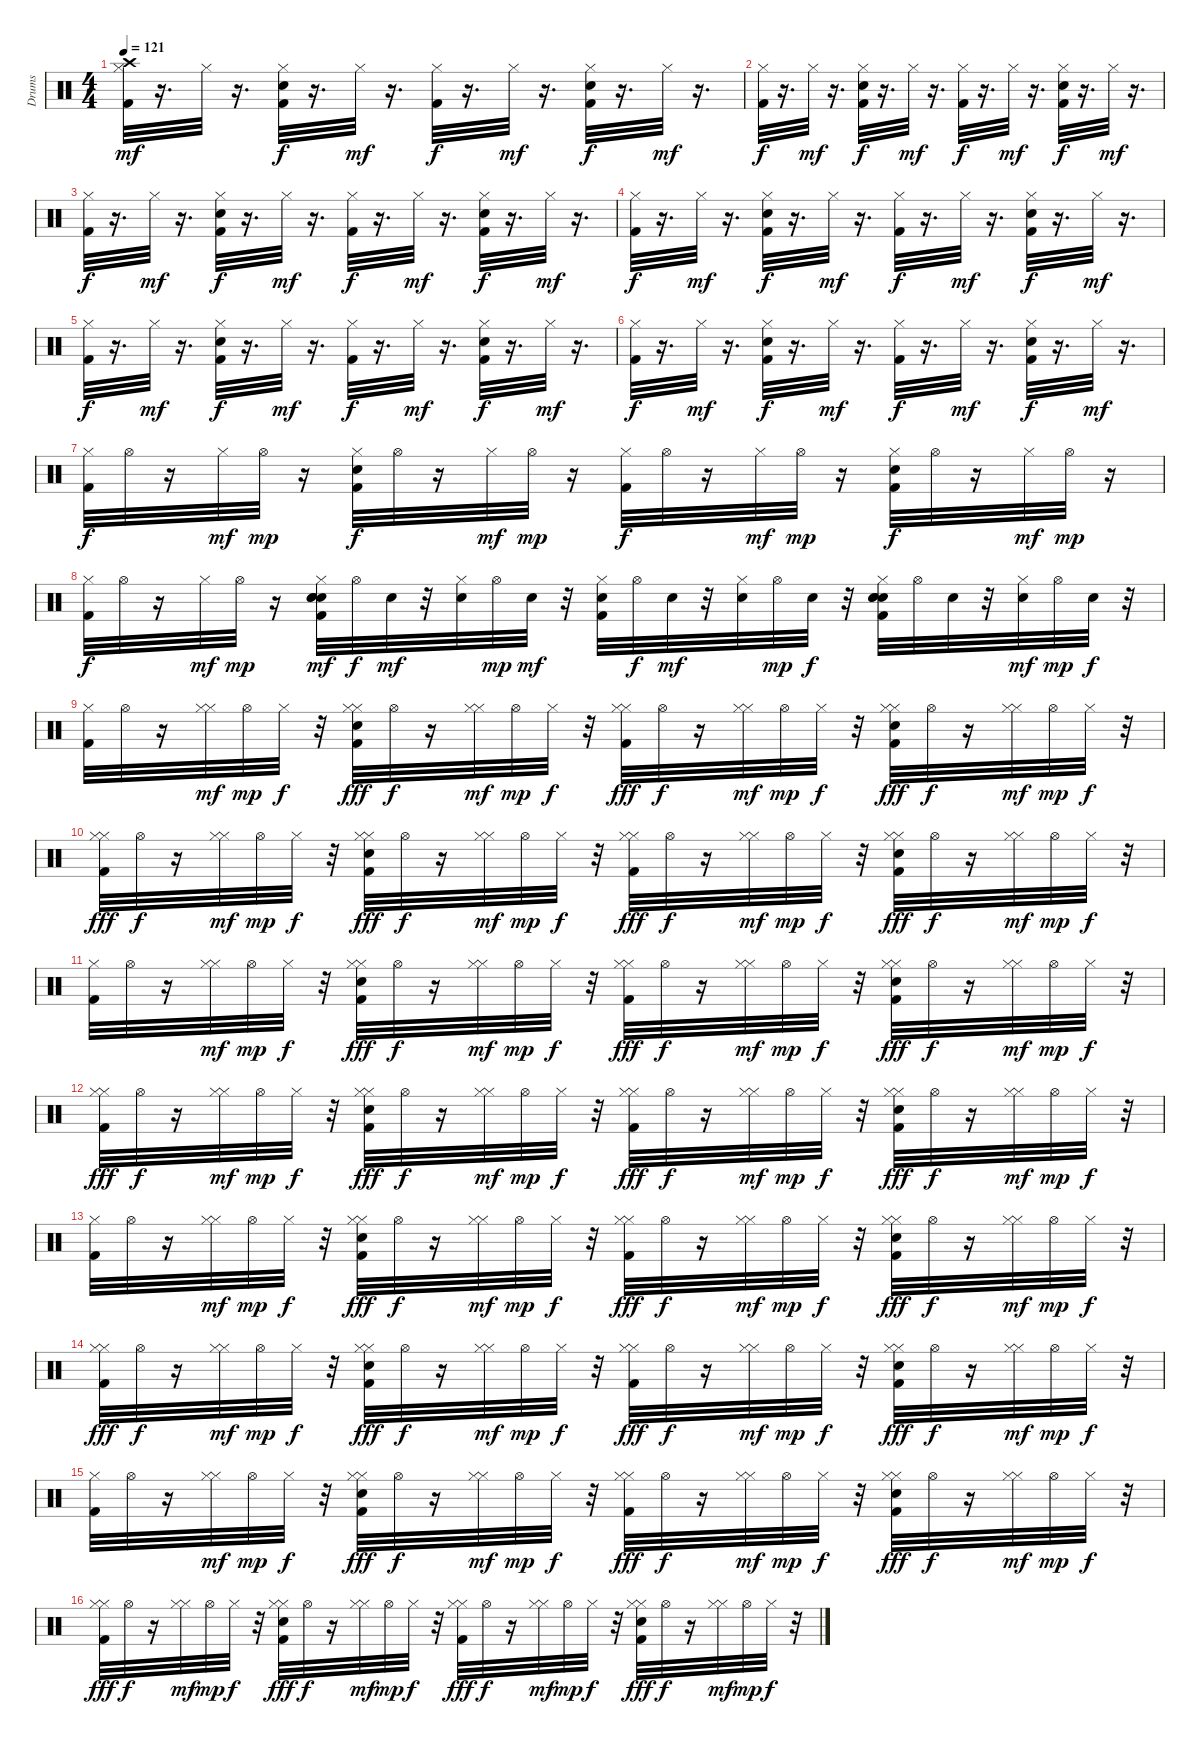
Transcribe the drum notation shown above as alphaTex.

\track ("Drums" "Drums") {instrument percussion}
\staff {score}
\articulation defaults
\ts (4 4)
\tempo 121
\clef neutral
\ks c
("Kick (hit) 2" "Hi-Hat (closed)" "Crash high (hit)").32{dy mf} r.16{d} "Hi-Hat (closed)".32 r.16{d} ("Kick (hit) 2" "Hi-Hat (closed)" "Snare (hit) 2").32{dy f} r.16{d} "Hi-Hat (closed)".32{dy mf} r.16{d} ("Hi-Hat (closed)" "Kick (hit) 2").32{dy f} r.16{d} "Hi-Hat (closed)".32{dy mf} r.16{d} ("Kick (hit) 2" "Hi-Hat (closed)" "Snare (hit) 2").32{dy f} r.16{d} "Hi-Hat (closed)".32{dy mf} r.16{d} |
("Hi-Hat (closed)" "Kick (hit) 2").32{dy f} r.16{d} "Hi-Hat (closed)".32{dy mf} r.16{d} ("Kick (hit) 2" "Hi-Hat (closed)" "Snare (hit) 2").32{dy f} r.16{d} "Hi-Hat (closed)".32{dy mf} r.16{d} ("Hi-Hat (closed)" "Kick (hit) 2").32{dy f} r.16{d} "Hi-Hat (closed)".32{dy mf} r.16{d} ("Kick (hit) 2" "Hi-Hat (closed)" "Snare (hit) 2").32{dy f} r.16{d} "Hi-Hat (closed)".32{dy mf} r.16{d} |
("Kick (hit) 2" "Hi-Hat (closed)").32{dy f} r.16{d} "Hi-Hat (closed)".32{dy mf} r.16{d} ("Kick (hit) 2" "Hi-Hat (closed)" "Snare (hit) 2").32{dy f} r.16{d} "Hi-Hat (closed)".32{dy mf} r.16{d} ("Hi-Hat (closed)" "Kick (hit) 2").32{dy f} r.16{d} "Hi-Hat (closed)".32{dy mf} r.16{d} ("Kick (hit) 2" "Hi-Hat (closed)" "Snare (hit) 2").32{dy f} r.16{d} "Hi-Hat (closed)".32{dy mf} r.16{d} |
("Hi-Hat (closed)" "Kick (hit) 2").32{dy f} r.16{d} "Hi-Hat (closed)".32{dy mf} r.16{d} ("Kick (hit) 2" "Hi-Hat (closed)" "Snare (hit) 2").32{dy f} r.16{d} "Hi-Hat (closed)".32{dy mf} r.16{d} ("Hi-Hat (closed)" "Kick (hit) 2").32{dy f} r.16{d} "Hi-Hat (closed)".32{dy mf} r.16{d} ("Kick (hit) 2" "Hi-Hat (closed)" "Snare (hit) 2").32{dy f} r.16{d} "Hi-Hat (closed)".32{dy mf} r.16{d} |
("Kick (hit) 2" "Hi-Hat (closed)").32{dy f} r.16{d} "Hi-Hat (closed)".32{dy mf} r.16{d} ("Kick (hit) 2" "Hi-Hat (closed)" "Snare (hit) 2").32{dy f} r.16{d} "Hi-Hat (closed)".32{dy mf} r.16{d} ("Hi-Hat (closed)" "Kick (hit) 2").32{dy f} r.16{d} "Hi-Hat (closed)".32{dy mf} r.16{d} ("Kick (hit) 2" "Hi-Hat (closed)" "Snare (hit) 2").32{dy f} r.16{d} "Hi-Hat (closed)".32{dy mf} r.16{d} |
("Hi-Hat (closed)" "Kick (hit) 2").32{dy f} r.16{d} "Hi-Hat (closed)".32{dy mf} r.16{d} ("Kick (hit) 2" "Hi-Hat (closed)" "Snare (hit) 2").32{dy f} r.16{d} "Hi-Hat (closed)".32{dy mf} r.16{d} ("Hi-Hat (closed)" "Kick (hit) 2").32{dy f} r.16{d} "Hi-Hat (closed)".32{dy mf} r.16{d} ("Kick (hit) 2" "Hi-Hat (closed)" "Snare (hit) 2").32{dy f} r.16{d} "Hi-Hat (closed)".32{dy mf} r.16{d} |
("Kick (hit) 2" "Hi-Hat (closed)").32{dy f} "Hi-Hat (open)".32 r.16 "Hi-Hat (closed)".32{dy mf} "Hi-Hat (open)".32{dy mp} r.16 ("Kick (hit) 2" "Hi-Hat (closed)" "Snare (hit) 2").32{dy f} "Hi-Hat (open)".32 r.16 "Hi-Hat (closed)".32{dy mf} "Hi-Hat (open)".32{dy mp} r.16 ("Hi-Hat (closed)" "Kick (hit) 2").32{dy f} "Hi-Hat (open)".32 r.16 "Hi-Hat (closed)".32{dy mf} "Hi-Hat (open)".32{dy mp} r.16 ("Kick (hit) 2" "Hi-Hat (closed)" "Snare (hit) 2").32{dy f} "Hi-Hat (open)".32 r.16 "Hi-Hat (closed)".32{dy mf} "Hi-Hat (open)".32{dy mp} r.16 |
("Hi-Hat (closed)" "Kick (hit) 2").32{dy f} "Hi-Hat (open)".32 r.16 "Hi-Hat (closed)".32{dy mf} "Hi-Hat (open)".32{dy mp} r.16 ("Kick (hit) 2" "Hi-Hat (closed)" "Snare (hit) 2" "Snare (hit) 2" "Snare (hit) 2").32{dy mf} "Hi-Hat (open)".32{dy f} "Snare (hit) 2".32{dy mf} r.32 ("Hi-Hat (closed)" "Snare (hit) 2").32 "Hi-Hat (open)".32{dy mp} "Snare (hit) 2".32{dy mf} r.32 ("Hi-Hat (closed)" "Kick (hit) 2" "Snare (hit) 2").32 "Hi-Hat (open)".32{dy f} "Snare (hit) 2".32{dy mf} r.32 ("Hi-Hat (closed)" "Snare (hit) 2").32 "Hi-Hat (open)".32{dy mp} "Snare (hit) 2".32{dy f} r.32 ("Kick (hit) 2" "Hi-Hat (closed)" "Snare (hit) 2" "Snare (hit) 2" "Snare (hit) 2").32 "Hi-Hat (open)".32 "Snare (hit) 2".32 r.32 ("Hi-Hat (closed)" "Snare (hit) 2").32{dy mf} "Hi-Hat (open)".32{dy mp} "Snare (hit) 2".32{dy f} r.32 |
("Kick (hit) 2" "Hi-Hat (closed)").32 "Hi-Hat (open)".32 r.16 ("Hi-Hat (closed)" "Hi-Hat (closed)").32{dy mf} "Hi-Hat (open)".32{dy mp} "Hi-Hat (closed)".32{dy f} r.32 ("Kick (hit) 2" "Hi-Hat (closed)" "Snare (hit) 2" "Hi-Hat (closed)").32{dy fff} "Hi-Hat (open)".32{dy f} r.16 ("Hi-Hat (closed)" "Hi-Hat (closed)").32{dy mf} "Hi-Hat (open)".32{dy mp} "Hi-Hat (closed)".32{dy f} r.32 ("Hi-Hat (closed)" "Kick (hit) 2" "Hi-Hat (closed)").32{dy fff} "Hi-Hat (open)".32{dy f} r.16 ("Hi-Hat (closed)" "Hi-Hat (closed)").32{dy mf} "Hi-Hat (open)".32{dy mp} "Hi-Hat (closed)".32{dy f} r.32 ("Kick (hit) 2" "Hi-Hat (closed)" "Snare (hit) 2" "Hi-Hat (closed)").32{dy fff} "Hi-Hat (open)".32{dy f} r.16 ("Hi-Hat (closed)" "Hi-Hat (closed)").32{dy mf} "Hi-Hat (open)".32{dy mp} "Hi-Hat (closed)".32{dy f} r.32 |
("Hi-Hat (closed)" "Kick (hit) 2" "Hi-Hat (closed)").32{dy fff} "Hi-Hat (open)".32{dy f} r.16 ("Hi-Hat (closed)" "Hi-Hat (closed)").32{dy mf} "Hi-Hat (open)".32{dy mp} "Hi-Hat (closed)".32{dy f} r.32 ("Kick (hit) 2" "Hi-Hat (closed)" "Snare (hit) 2" "Hi-Hat (closed)").32{dy fff} "Hi-Hat (open)".32{dy f} r.16 ("Hi-Hat (closed)" "Hi-Hat (closed)").32{dy mf} "Hi-Hat (open)".32{dy mp} "Hi-Hat (closed)".32{dy f} r.32 ("Hi-Hat (closed)" "Kick (hit) 2" "Hi-Hat (closed)").32{dy fff} "Hi-Hat (open)".32{dy f} r.16 ("Hi-Hat (closed)" "Hi-Hat (closed)").32{dy mf} "Hi-Hat (open)".32{dy mp} "Hi-Hat (closed)".32{dy f} r.32 ("Kick (hit) 2" "Hi-Hat (closed)" "Snare (hit) 2" "Hi-Hat (closed)").32{dy fff} "Hi-Hat (open)".32{dy f} r.16 ("Hi-Hat (closed)" "Hi-Hat (closed)").32{dy mf} "Hi-Hat (open)".32{dy mp} "Hi-Hat (closed)".32{dy f} r.32 |
("Kick (hit) 2" "Hi-Hat (closed)").32 "Hi-Hat (open)".32 r.16 ("Hi-Hat (closed)" "Hi-Hat (closed)").32{dy mf} "Hi-Hat (open)".32{dy mp} "Hi-Hat (closed)".32{dy f} r.32 ("Kick (hit) 2" "Hi-Hat (closed)" "Snare (hit) 2" "Hi-Hat (closed)").32{dy fff} "Hi-Hat (open)".32{dy f} r.16 ("Hi-Hat (closed)" "Hi-Hat (closed)").32{dy mf} "Hi-Hat (open)".32{dy mp} "Hi-Hat (closed)".32{dy f} r.32 ("Hi-Hat (closed)" "Kick (hit) 2" "Hi-Hat (closed)").32{dy fff} "Hi-Hat (open)".32{dy f} r.16 ("Hi-Hat (closed)" "Hi-Hat (closed)").32{dy mf} "Hi-Hat (open)".32{dy mp} "Hi-Hat (closed)".32{dy f} r.32 ("Kick (hit) 2" "Hi-Hat (closed)" "Snare (hit) 2" "Hi-Hat (closed)").32{dy fff} "Hi-Hat (open)".32{dy f} r.16 ("Hi-Hat (closed)" "Hi-Hat (closed)").32{dy mf} "Hi-Hat (open)".32{dy mp} "Hi-Hat (closed)".32{dy f} r.32 |
("Hi-Hat (closed)" "Kick (hit) 2" "Hi-Hat (closed)").32{dy fff} "Hi-Hat (open)".32{dy f} r.16 ("Hi-Hat (closed)" "Hi-Hat (closed)").32{dy mf} "Hi-Hat (open)".32{dy mp} "Hi-Hat (closed)".32{dy f} r.32 ("Kick (hit) 2" "Hi-Hat (closed)" "Snare (hit) 2" "Hi-Hat (closed)").32{dy fff} "Hi-Hat (open)".32{dy f} r.16 ("Hi-Hat (closed)" "Hi-Hat (closed)").32{dy mf} "Hi-Hat (open)".32{dy mp} "Hi-Hat (closed)".32{dy f} r.32 ("Hi-Hat (closed)" "Kick (hit) 2" "Hi-Hat (closed)").32{dy fff} "Hi-Hat (open)".32{dy f} r.16 ("Hi-Hat (closed)" "Hi-Hat (closed)").32{dy mf} "Hi-Hat (open)".32{dy mp} "Hi-Hat (closed)".32{dy f} r.32 ("Kick (hit) 2" "Hi-Hat (closed)" "Snare (hit) 2" "Hi-Hat (closed)").32{dy fff} "Hi-Hat (open)".32{dy f} r.16 ("Hi-Hat (closed)" "Hi-Hat (closed)").32{dy mf} "Hi-Hat (open)".32{dy mp} "Hi-Hat (closed)".32{dy f} r.32 |
("Kick (hit) 2" "Hi-Hat (closed)").32 "Hi-Hat (open)".32 r.16 ("Hi-Hat (closed)" "Hi-Hat (closed)").32{dy mf} "Hi-Hat (open)".32{dy mp} "Hi-Hat (closed)".32{dy f} r.32 ("Kick (hit) 2" "Hi-Hat (closed)" "Snare (hit) 2" "Hi-Hat (closed)").32{dy fff} "Hi-Hat (open)".32{dy f} r.16 ("Hi-Hat (closed)" "Hi-Hat (closed)").32{dy mf} "Hi-Hat (open)".32{dy mp} "Hi-Hat (closed)".32{dy f} r.32 ("Hi-Hat (closed)" "Kick (hit) 2" "Hi-Hat (closed)").32{dy fff} "Hi-Hat (open)".32{dy f} r.16 ("Hi-Hat (closed)" "Hi-Hat (closed)").32{dy mf} "Hi-Hat (open)".32{dy mp} "Hi-Hat (closed)".32{dy f} r.32 ("Kick (hit) 2" "Hi-Hat (closed)" "Snare (hit) 2" "Hi-Hat (closed)").32{dy fff} "Hi-Hat (open)".32{dy f} r.16 ("Hi-Hat (closed)" "Hi-Hat (closed)").32{dy mf} "Hi-Hat (open)".32{dy mp} "Hi-Hat (closed)".32{dy f} r.32 |
("Hi-Hat (closed)" "Kick (hit) 2" "Hi-Hat (closed)").32{dy fff} "Hi-Hat (open)".32{dy f} r.16 ("Hi-Hat (closed)" "Hi-Hat (closed)").32{dy mf} "Hi-Hat (open)".32{dy mp} "Hi-Hat (closed)".32{dy f} r.32 ("Kick (hit) 2" "Hi-Hat (closed)" "Snare (hit) 2" "Hi-Hat (closed)").32{dy fff} "Hi-Hat (open)".32{dy f} r.16 ("Hi-Hat (closed)" "Hi-Hat (closed)").32{dy mf} "Hi-Hat (open)".32{dy mp} "Hi-Hat (closed)".32{dy f} r.32 ("Hi-Hat (closed)" "Kick (hit) 2" "Hi-Hat (closed)").32{dy fff} "Hi-Hat (open)".32{dy f} r.16 ("Hi-Hat (closed)" "Hi-Hat (closed)").32{dy mf} "Hi-Hat (open)".32{dy mp} "Hi-Hat (closed)".32{dy f} r.32 ("Kick (hit) 2" "Hi-Hat (closed)" "Snare (hit) 2" "Hi-Hat (closed)").32{dy fff} "Hi-Hat (open)".32{dy f} r.16 ("Hi-Hat (closed)" "Hi-Hat (closed)").32{dy mf} "Hi-Hat (open)".32{dy mp} "Hi-Hat (closed)".32{dy f} r.32 |
("Kick (hit) 2" "Hi-Hat (closed)").32 "Hi-Hat (open)".32 r.16 ("Hi-Hat (closed)" "Hi-Hat (closed)").32{dy mf} "Hi-Hat (open)".32{dy mp} "Hi-Hat (closed)".32{dy f} r.32 ("Kick (hit) 2" "Hi-Hat (closed)" "Snare (hit) 2" "Hi-Hat (closed)").32{dy fff} "Hi-Hat (open)".32{dy f} r.16 ("Hi-Hat (closed)" "Hi-Hat (closed)").32{dy mf} "Hi-Hat (open)".32{dy mp} "Hi-Hat (closed)".32{dy f} r.32 ("Hi-Hat (closed)" "Kick (hit) 2" "Hi-Hat (closed)").32{dy fff} "Hi-Hat (open)".32{dy f} r.16 ("Hi-Hat (closed)" "Hi-Hat (closed)").32{dy mf} "Hi-Hat (open)".32{dy mp} "Hi-Hat (closed)".32{dy f} r.32 ("Kick (hit) 2" "Hi-Hat (closed)" "Snare (hit) 2" "Hi-Hat (closed)").32{dy fff} "Hi-Hat (open)".32{dy f} r.16 ("Hi-Hat (closed)" "Hi-Hat (closed)").32{dy mf} "Hi-Hat (open)".32{dy mp} "Hi-Hat (closed)".32{dy f} r.32 |
("Hi-Hat (closed)" "Kick (hit) 2" "Hi-Hat (closed)").32{dy fff} "Hi-Hat (open)".32{dy f} r.16 ("Hi-Hat (closed)" "Hi-Hat (closed)").32{dy mf} "Hi-Hat (open)".32{dy mp} "Hi-Hat (closed)".32{dy f} r.32 ("Kick (hit) 2" "Hi-Hat (closed)" "Snare (hit) 2" "Hi-Hat (closed)").32{dy fff} "Hi-Hat (open)".32{dy f} r.16 ("Hi-Hat (closed)" "Hi-Hat (closed)").32{dy mf} "Hi-Hat (open)".32{dy mp} "Hi-Hat (closed)".32{dy f} r.32 ("Hi-Hat (closed)" "Kick (hit) 2" "Hi-Hat (closed)").32{dy fff} "Hi-Hat (open)".32{dy f} r.16 ("Hi-Hat (closed)" "Hi-Hat (closed)").32{dy mf} "Hi-Hat (open)".32{dy mp} "Hi-Hat (closed)".32{dy f} r.32 ("Kick (hit) 2" "Hi-Hat (closed)" "Snare (hit) 2" "Hi-Hat (closed)").32{dy fff} "Hi-Hat (open)".32{dy f} r.16 ("Hi-Hat (closed)" "Hi-Hat (closed)").32{dy mf} "Hi-Hat (open)".32{dy mp} "Hi-Hat (closed)".32{dy f} r.32
